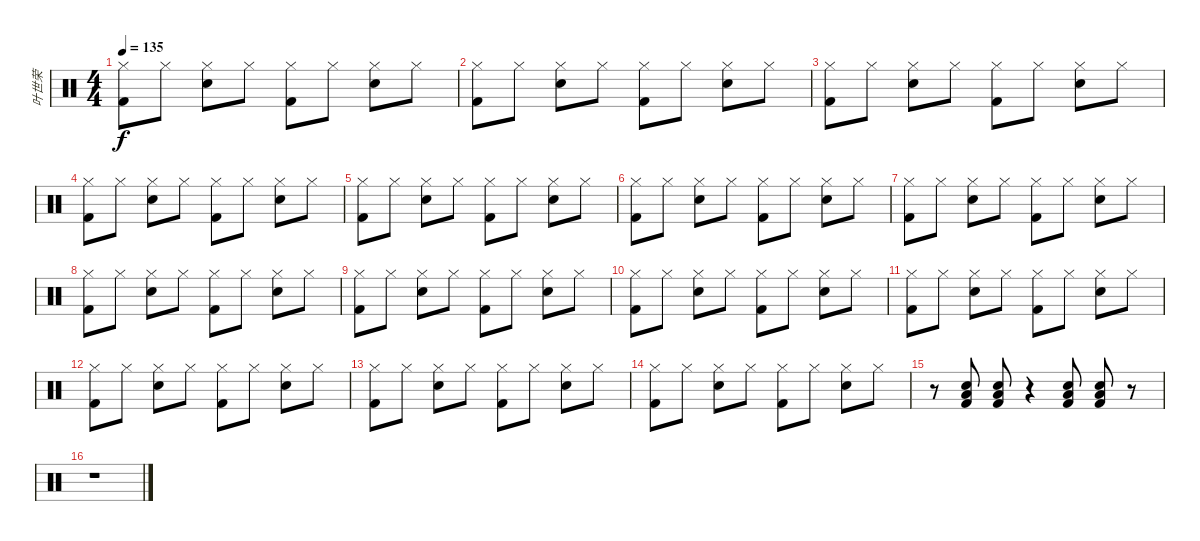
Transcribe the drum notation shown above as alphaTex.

\track ("叶世荣" "叶世荣") {instrument percussion}
\staff {score}
\articulation defaults
\ts (4 4)
\tempo 135
\clef neutral
\ks c
("Hi-Hat (closed)" "Kick (hit) 2").8{dy f} "Hi-Hat (closed)".8 ("Hi-Hat (closed)" "Electric Snare (hit)").8 "Hi-Hat (closed)".8 ("Hi-Hat (closed)" "Kick (hit) 2").8 "Hi-Hat (closed)".8 ("Hi-Hat (closed)" "Electric Snare (hit)").8 "Hi-Hat (closed)".8 |
("Hi-Hat (closed)" "Kick (hit) 2").8 "Hi-Hat (closed)".8 ("Hi-Hat (closed)" "Electric Snare (hit)").8 "Hi-Hat (closed)".8 ("Hi-Hat (closed)" "Kick (hit) 2").8 "Hi-Hat (closed)".8 ("Hi-Hat (closed)" "Electric Snare (hit)").8 "Hi-Hat (closed)".8 |
("Hi-Hat (closed)" "Kick (hit) 2").8 "Hi-Hat (closed)".8 ("Hi-Hat (closed)" "Electric Snare (hit)").8 "Hi-Hat (closed)".8 ("Hi-Hat (closed)" "Kick (hit) 2").8 "Hi-Hat (closed)".8 ("Hi-Hat (closed)" "Electric Snare (hit)").8 "Hi-Hat (closed)".8 |
("Hi-Hat (closed)" "Kick (hit) 2").8 "Hi-Hat (closed)".8 ("Hi-Hat (closed)" "Electric Snare (hit)").8 "Hi-Hat (closed)".8 ("Hi-Hat (closed)" "Kick (hit) 2").8 "Hi-Hat (closed)".8 ("Hi-Hat (closed)" "Electric Snare (hit)").8 "Hi-Hat (closed)".8 |
("Hi-Hat (closed)" "Kick (hit) 2").8 "Hi-Hat (closed)".8 ("Hi-Hat (closed)" "Electric Snare (hit)").8 "Hi-Hat (closed)".8 ("Hi-Hat (closed)" "Kick (hit) 2").8 "Hi-Hat (closed)".8 ("Hi-Hat (closed)" "Electric Snare (hit)").8 "Hi-Hat (closed)".8 |
("Hi-Hat (closed)" "Kick (hit) 2").8 "Hi-Hat (closed)".8 ("Hi-Hat (closed)" "Electric Snare (hit)").8 "Hi-Hat (closed)".8 ("Hi-Hat (closed)" "Kick (hit) 2").8 "Hi-Hat (closed)".8 ("Hi-Hat (closed)" "Electric Snare (hit)").8 "Hi-Hat (closed)".8 |
("Hi-Hat (closed)" "Kick (hit) 2").8 "Hi-Hat (closed)".8 ("Hi-Hat (closed)" "Electric Snare (hit)").8 "Hi-Hat (closed)".8 ("Hi-Hat (closed)" "Kick (hit) 2").8 "Hi-Hat (closed)".8 ("Hi-Hat (closed)" "Electric Snare (hit)").8 "Hi-Hat (closed)".8 |
("Hi-Hat (closed)" "Kick (hit) 2").8 "Hi-Hat (closed)".8 ("Hi-Hat (closed)" "Electric Snare (hit)").8 "Hi-Hat (closed)".8 ("Hi-Hat (closed)" "Kick (hit) 2").8 "Hi-Hat (closed)".8 ("Hi-Hat (closed)" "Electric Snare (hit)").8 "Hi-Hat (closed)".8 |
("Hi-Hat (closed)" "Kick (hit) 2").8 "Hi-Hat (closed)".8 ("Hi-Hat (closed)" "Electric Snare (hit)").8 "Hi-Hat (closed)".8 ("Hi-Hat (closed)" "Kick (hit) 2").8 "Hi-Hat (closed)".8 ("Hi-Hat (closed)" "Electric Snare (hit)").8 "Hi-Hat (closed)".8 |
("Hi-Hat (closed)" "Kick (hit) 2").8 "Hi-Hat (closed)".8 ("Hi-Hat (closed)" "Electric Snare (hit)").8 "Hi-Hat (closed)".8 ("Hi-Hat (closed)" "Kick (hit) 2").8 "Hi-Hat (closed)".8 ("Hi-Hat (closed)" "Electric Snare (hit)").8 "Hi-Hat (closed)".8 |
("Hi-Hat (closed)" "Kick (hit) 2").8 "Hi-Hat (closed)".8 ("Hi-Hat (closed)" "Electric Snare (hit)").8 "Hi-Hat (closed)".8 ("Hi-Hat (closed)" "Kick (hit) 2").8 "Hi-Hat (closed)".8 ("Hi-Hat (closed)" "Electric Snare (hit)").8 "Hi-Hat (closed)".8 |
("Hi-Hat (closed)" "Kick (hit) 2").8 "Hi-Hat (closed)".8 ("Hi-Hat (closed)" "Electric Snare (hit)").8 "Hi-Hat (closed)".8 ("Hi-Hat (closed)" "Kick (hit) 2").8 "Hi-Hat (closed)".8 ("Hi-Hat (closed)" "Electric Snare (hit)").8 "Hi-Hat (closed)".8 |
("Hi-Hat (closed)" "Kick (hit) 2").8 "Hi-Hat (closed)".8 ("Hi-Hat (closed)" "Electric Snare (hit)").8 "Hi-Hat (closed)".8 ("Hi-Hat (closed)" "Kick (hit) 2").8 "Hi-Hat (closed)".8 ("Hi-Hat (closed)" "Electric Snare (hit)").8 "Hi-Hat (closed)".8 |
("Hi-Hat (closed)" "Kick (hit) 2").8 "Hi-Hat (closed)".8 ("Hi-Hat (closed)" "Electric Snare (hit)").8 "Hi-Hat (closed)".8 ("Hi-Hat (closed)" "Kick (hit) 2").8 "Hi-Hat (closed)".8 ("Hi-Hat (closed)" "Electric Snare (hit)").8 "Hi-Hat (closed)".8 |
r.8 ("Low Tom (hit)" "Snare (hit) 2" "Kick (hit) 2").8 ("Low Tom (hit)" "Snare (hit) 2" "Kick (hit) 2").8 r.4 ("Low Tom (hit)" "Snare (hit) 2" "Kick (hit) 2").8 ("Low Tom (hit)" "Snare (hit) 2" "Kick (hit) 2").8 r.8 |
r.1
